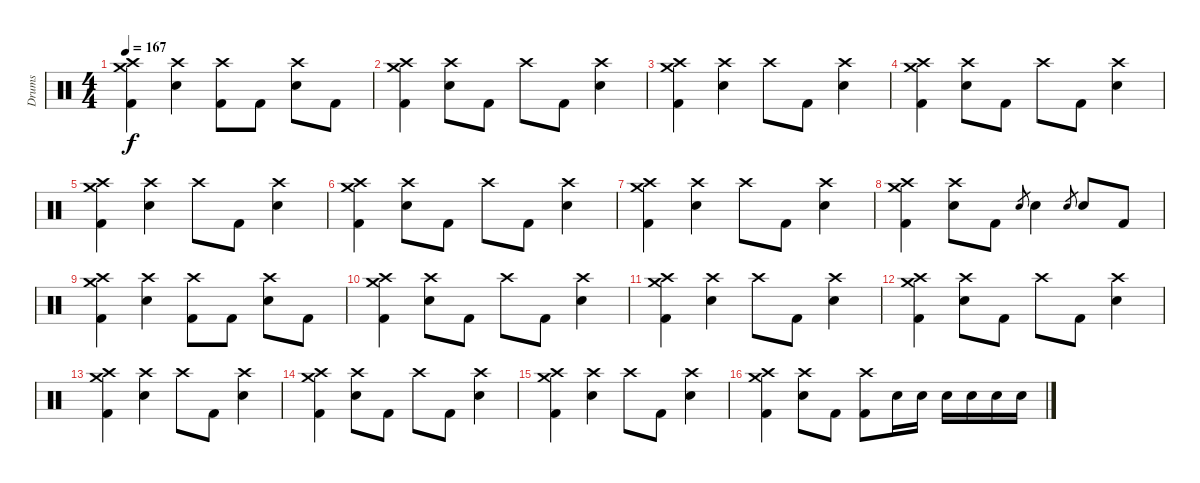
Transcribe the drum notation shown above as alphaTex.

\track ("Drums" "Drums") {instrument percussion}
\staff {score}
\articulation defaults
\ts (4 4)
\tempo 167
\clef neutral
\ks c
("Crash medium (hit)" "Crash high (hit)" "Kick (hit) 2").4{dy f} ("Crash high (hit)" "Snare (hit) 2").4 ("Crash high (hit)" "Kick (hit) 2").8 "Kick (hit) 2".8 ("Crash high (hit)" "Snare (hit) 2").8 "Kick (hit) 2".8 |
("Crash medium (hit)" "Crash high (hit)" "Kick (hit) 2").4 ("Crash high (hit)" "Snare (hit) 2").8 "Kick (hit) 2".8 "Crash high (hit)".8 "Kick (hit) 2".8 ("Crash high (hit)" "Snare (hit) 2").4 |
("Crash medium (hit)" "Crash high (hit)" "Kick (hit) 2").4 ("Crash high (hit)" "Snare (hit) 2").4 "Crash high (hit)".8 "Kick (hit) 2".8 ("Crash high (hit)" "Snare (hit) 2").4 |
("Crash medium (hit)" "Crash high (hit)" "Kick (hit) 2").4 ("Crash high (hit)" "Snare (hit) 2").8 "Kick (hit) 2".8 "Crash high (hit)".8 "Kick (hit) 2".8 ("Crash high (hit)" "Snare (hit) 2").4 |
("Crash medium (hit)" "Crash high (hit)" "Kick (hit) 2").4 ("Crash high (hit)" "Snare (hit) 2").4 "Crash high (hit)".8 "Kick (hit) 2".8 ("Crash high (hit)" "Snare (hit) 2").4 |
("Crash medium (hit)" "Crash high (hit)" "Kick (hit) 2").4 ("Crash high (hit)" "Snare (hit) 2").8 "Kick (hit) 2".8 "Crash high (hit)".8 "Kick (hit) 2".8 ("Crash high (hit)" "Snare (hit) 2").4 |
("Crash medium (hit)" "Crash high (hit)" "Kick (hit) 2").4 ("Crash high (hit)" "Snare (hit) 2").4 "Crash high (hit)".8 "Kick (hit) 2".8 ("Crash high (hit)" "Snare (hit) 2").4 |
("Crash medium (hit)" "Crash high (hit)" "Kick (hit) 2").4 ("Crash high (hit)" "Snare (hit) 2").8 "Kick (hit) 2".8 "Snare (hit) 2".8{gr} "Snare (hit) 2".4 "Snare (hit) 2".8{gr} "Snare (hit) 2".8 "Kick (hit) 2".8 |
("Crash medium (hit)" "Crash high (hit)" "Kick (hit) 2").4 ("Crash high (hit)" "Snare (hit) 2").4 ("Crash high (hit)" "Kick (hit) 2").8 "Kick (hit) 2".8 ("Crash high (hit)" "Snare (hit) 2").8 "Kick (hit) 2".8 |
("Crash medium (hit)" "Crash high (hit)" "Kick (hit) 2").4 ("Crash high (hit)" "Snare (hit) 2").8 "Kick (hit) 2".8 "Crash high (hit)".8 "Kick (hit) 2".8 ("Crash high (hit)" "Snare (hit) 2").4 |
("Crash medium (hit)" "Crash high (hit)" "Kick (hit) 2").4 ("Crash high (hit)" "Snare (hit) 2").4 "Crash high (hit)".8 "Kick (hit) 2".8 ("Crash high (hit)" "Snare (hit) 2").4 |
("Crash medium (hit)" "Crash high (hit)" "Kick (hit) 2").4 ("Crash high (hit)" "Snare (hit) 2").8 "Kick (hit) 2".8 "Crash high (hit)".8 "Kick (hit) 2".8 ("Crash high (hit)" "Snare (hit) 2").4 |
("Crash medium (hit)" "Crash high (hit)" "Kick (hit) 2").4 ("Crash high (hit)" "Snare (hit) 2").4 "Crash high (hit)".8 "Kick (hit) 2".8 ("Crash high (hit)" "Snare (hit) 2").4 |
("Crash medium (hit)" "Crash high (hit)" "Kick (hit) 2").4 ("Crash high (hit)" "Snare (hit) 2").8 "Kick (hit) 2".8 "Crash high (hit)".8 "Kick (hit) 2".8 ("Crash high (hit)" "Snare (hit) 2").4 |
("Crash medium (hit)" "Crash high (hit)" "Kick (hit) 2").4 ("Crash high (hit)" "Snare (hit) 2").4 "Crash high (hit)".8 "Kick (hit) 2".8 ("Crash high (hit)" "Snare (hit) 2").4 |
("Crash medium (hit)" "Crash high (hit)" "Kick (hit) 2").4 ("Crash high (hit)" "Snare (hit) 2").8 "Kick (hit) 2".8 ("Crash high (hit)" "Kick (hit) 2").8 "Snare (hit) 2".16 "Snare (hit) 2".16 "Snare (hit) 2".16 "Snare (hit) 2".16 "Snare (hit) 2".16 "Snare (hit) 2".16
